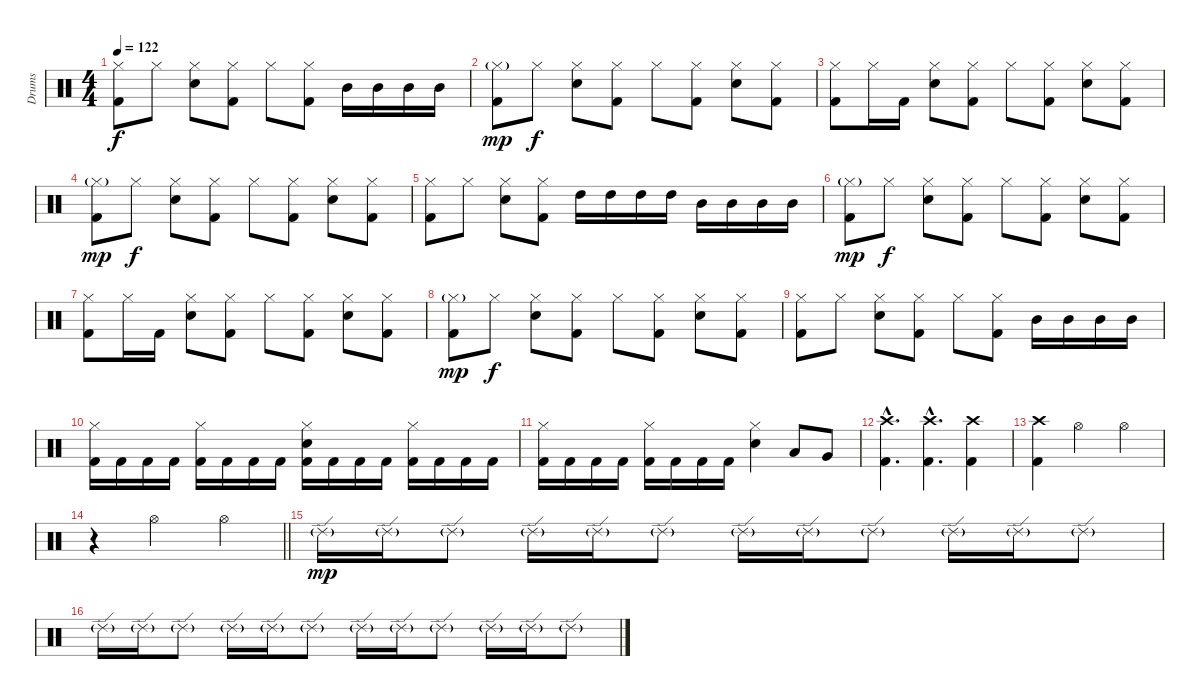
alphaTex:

\track ("Drums" "Drums") {instrument percussion}
\staff {score}
\articulation defaults
\ts (4 4)
\tempo 122
\clef neutral
\ks c
("Hi-Hat (closed)" "Kick (hit) 2").8{dy f} "Hi-Hat (closed)".8 ("Hi-Hat (closed)" "Electric Snare (hit)").8 ("Hi-Hat (closed)" "Kick (hit) 2").8 "Hi-Hat (closed)".8 ("Hi-Hat (closed)" "Kick (hit) 2").8 "Mid Tom (hit)".16 "Mid Tom (hit)".16 "Mid Tom (hit)".16 "Mid Tom (hit)".16 |
("Hi-Hat (closed)"{g} "Kick (hit) 2").8{dy mp} "Hi-Hat (closed)".8{dy f} ("Hi-Hat (closed)" "Electric Snare (hit)").8 ("Hi-Hat (closed)" "Kick (hit) 2").8 "Hi-Hat (closed)".8 ("Hi-Hat (closed)" "Kick (hit) 2").8 ("Hi-Hat (closed)" "Electric Snare (hit)").8 ("Hi-Hat (closed)" "Kick (hit) 2").8 |
("Hi-Hat (closed)" "Kick (hit) 2").8 "Hi-Hat (closed)".16 "Kick (hit) 2".16 ("Hi-Hat (closed)" "Electric Snare (hit)").8 ("Hi-Hat (closed)" "Kick (hit) 2").8 "Hi-Hat (closed)".8 ("Hi-Hat (closed)" "Kick (hit) 2").8 ("Hi-Hat (closed)" "Electric Snare (hit)").8 ("Hi-Hat (closed)" "Kick (hit) 2").8 |
("Hi-Hat (closed)"{g} "Kick (hit) 2").8{dy mp} "Hi-Hat (closed)".8{dy f} ("Hi-Hat (closed)" "Electric Snare (hit)").8 ("Hi-Hat (closed)" "Kick (hit) 2").8 "Hi-Hat (closed)".8 ("Hi-Hat (closed)" "Kick (hit) 2").8 ("Hi-Hat (closed)" "Electric Snare (hit)").8 ("Hi-Hat (closed)" "Kick (hit) 2").8 |
("Hi-Hat (closed)" "Kick (hit) 2").8 "Hi-Hat (closed)".8 ("Hi-Hat (closed)" "Electric Snare (hit)").8 ("Hi-Hat (closed)" "Kick (hit) 2").8 "High Tom (hit)".16 "High Tom (hit)".16 "High Tom (hit)".16 "High Tom (hit)".16 "Mid Tom (hit)".16 "Mid Tom (hit)".16 "Mid Tom (hit)".16 "Mid Tom (hit)".16 |
("Hi-Hat (closed)"{g} "Kick (hit) 2").8{dy mp} "Hi-Hat (closed)".8{dy f} ("Hi-Hat (closed)" "Electric Snare (hit)").8 ("Hi-Hat (closed)" "Kick (hit) 2").8 "Hi-Hat (closed)".8 ("Hi-Hat (closed)" "Kick (hit) 2").8 ("Hi-Hat (closed)" "Electric Snare (hit)").8 ("Hi-Hat (closed)" "Kick (hit) 2").8 |
("Hi-Hat (closed)" "Kick (hit) 2").8 "Hi-Hat (closed)".16 "Kick (hit) 2".16 ("Hi-Hat (closed)" "Electric Snare (hit)").8 ("Hi-Hat (closed)" "Kick (hit) 2").8 "Hi-Hat (closed)".8 ("Hi-Hat (closed)" "Kick (hit) 2").8 ("Hi-Hat (closed)" "Electric Snare (hit)").8 ("Hi-Hat (closed)" "Kick (hit) 2").8 |
("Hi-Hat (closed)"{g} "Kick (hit) 2").8{dy mp} "Hi-Hat (closed)".8{dy f} ("Hi-Hat (closed)" "Electric Snare (hit)").8 ("Hi-Hat (closed)" "Kick (hit) 2").8 "Hi-Hat (closed)".8 ("Hi-Hat (closed)" "Kick (hit) 2").8 ("Hi-Hat (closed)" "Electric Snare (hit)").8 ("Hi-Hat (closed)" "Kick (hit) 2").8 |
("Hi-Hat (closed)" "Kick (hit) 2").8 "Hi-Hat (closed)".8 ("Hi-Hat (closed)" "Electric Snare (hit)").8 ("Hi-Hat (closed)" "Kick (hit) 2").8 "Hi-Hat (closed)".8 ("Hi-Hat (closed)" "Kick (hit) 2").8 "Mid Tom (hit)".16 "Mid Tom (hit)".16 "Mid Tom (hit)".16 "Mid Tom (hit)".16 |
("Hi-Hat (closed)" "Kick (hit) 2").16 "Kick (hit) 2".16 "Kick (hit) 2".16 "Kick (hit) 2".16 ("Hi-Hat (closed)" "Kick (hit) 2").16 "Kick (hit) 2".16 "Kick (hit) 2".16 "Kick (hit) 2".16 ("Hi-Hat (closed)" "Electric Snare (hit)" "Kick (hit) 2").16 "Kick (hit) 2".16 "Kick (hit) 2".16 "Kick (hit) 2".16 ("Hi-Hat (closed)" "Kick (hit) 2").16 "Kick (hit) 2".16 "Kick (hit) 2".16 "Kick (hit) 2".16 |
("Hi-Hat (closed)" "Kick (hit) 2").16 "Kick (hit) 2".16 "Kick (hit) 2".16 "Kick (hit) 2".16 ("Hi-Hat (closed)" "Kick (hit) 2").16 "Kick (hit) 2".16 "Kick (hit) 2".16 "Kick (hit) 2".16 ("Hi-Hat (closed)" "Electric Snare (hit)").4 "Low Tom (hit)".8 "Very Low Tom (hit)".8 |
("Crash high (hit)"{hac} "Kick (hit) 2"{hac}).4{d} ("Crash high (hit)"{hac} "Kick (hit) 2"{hac}).4{d} ("Crash high (hit)" "Kick (hit) 2").4 |
("Crash high (hit)" "Kick (hit) 2").4 "Hi-Hat (open)".2 "Hi-Hat (open)".4 |
\barLineRight lightlight
r.4 "Hi-Hat (open)".2 "Hi-Hat (open)".4 |
"Ride (edge) 2"{g}.16{dy mp} "Ride (edge) 2"{g}.16 "Ride (edge) 2"{g}.8 "Ride (edge) 2"{g}.16 "Ride (edge) 2"{g}.16 "Ride (edge) 2"{g}.8 "Ride (edge) 2"{g}.16 "Ride (edge) 2"{g}.16 "Ride (edge) 2"{g}.8 "Ride (edge) 2"{g}.16 "Ride (edge) 2"{g}.16 "Ride (edge) 2"{g}.8 |
"Ride (edge) 2"{g}.16 "Ride (edge) 2"{g}.16 "Ride (edge) 2"{g}.8 "Ride (edge) 2"{g}.16 "Ride (edge) 2"{g}.16 "Ride (edge) 2"{g}.8 "Ride (edge) 2"{g}.16 "Ride (edge) 2"{g}.16 "Ride (edge) 2"{g}.8 "Ride (edge) 2"{g}.16 "Ride (edge) 2"{g}.16 "Ride (edge) 2"{g}.8
